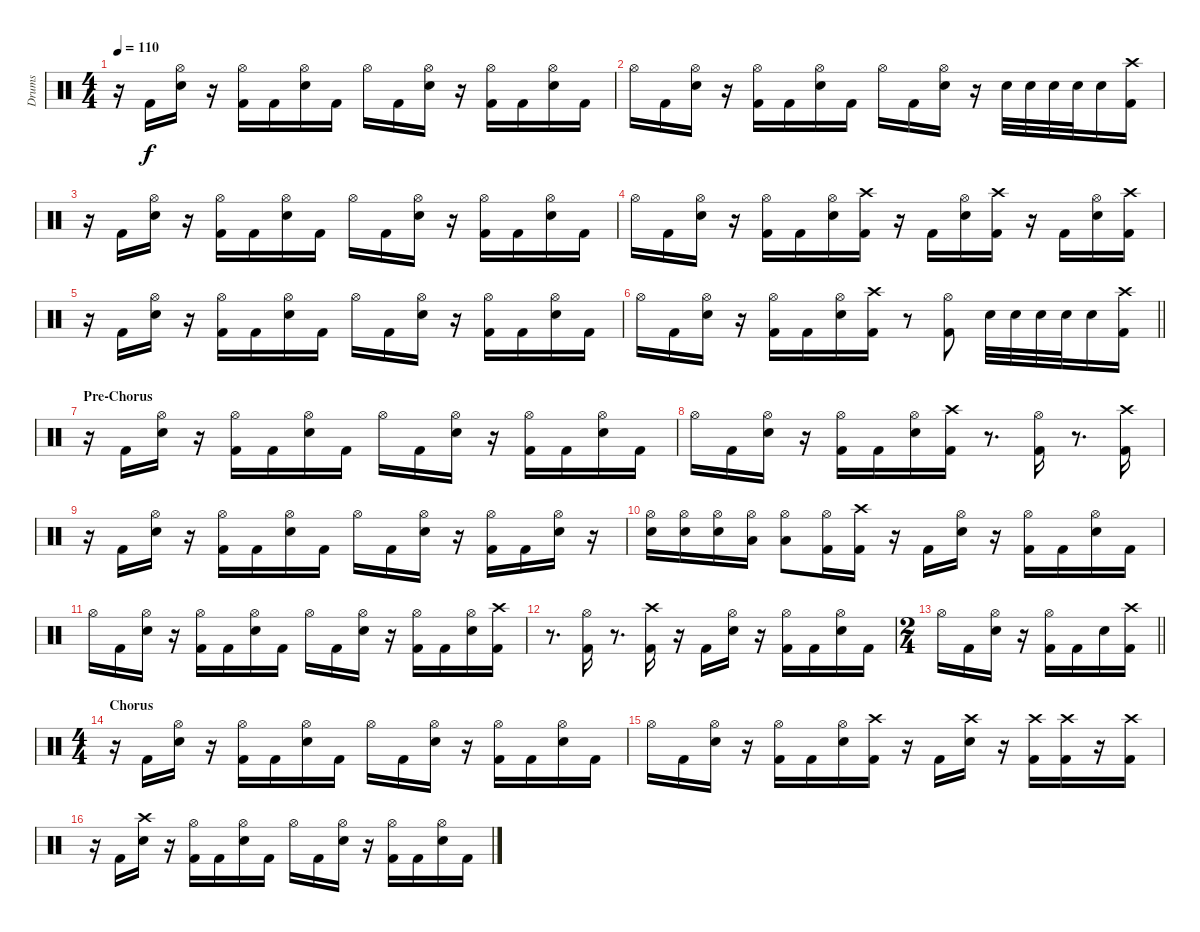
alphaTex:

\track ("Drums" "Drums") {instrument percussion}
\staff {score}
\articulation defaults
\ts (4 4)
\tempo 110
\clef neutral
\ks c
r.16{dy f} "Kick (hit) 2".16 ("Hi-Hat (open)" "Snare (hit) 2").16 r.16 ("Hi-Hat (open)" "Kick (hit) 2").16 "Kick (hit) 2".16 ("Hi-Hat (open)" "Snare (hit) 2").16 "Kick (hit) 2".16 "Hi-Hat (open)".16 "Kick (hit) 2".16 ("Hi-Hat (open)" "Snare (hit) 2").16 r.16 ("Hi-Hat (open)" "Kick (hit) 2").16 "Kick (hit) 2".16 ("Hi-Hat (open)" "Snare (hit) 2").16 "Kick (hit) 2".16 |
"Hi-Hat (open)".16 "Kick (hit) 2".16 ("Hi-Hat (open)" "Snare (hit) 2").16 r.16 ("Hi-Hat (open)" "Kick (hit) 2").16 "Kick (hit) 2".16 ("Hi-Hat (open)" "Snare (hit) 2").16 "Kick (hit) 2".16 "Hi-Hat (open)".16 "Kick (hit) 2".16 ("Hi-Hat (open)" "Snare (hit) 2").16 r.16 "Snare (hit) 2".32 "Snare (hit) 2".32 "Snare (hit) 2".32 "Snare (hit) 2".32 "Snare (hit) 2".16 ("Crash high (hit)" "Kick (hit) 2").16 |
r.16 "Kick (hit) 2".16 ("Hi-Hat (open)" "Snare (hit) 2").16 r.16 ("Hi-Hat (open)" "Kick (hit) 2").16 "Kick (hit) 2".16 ("Hi-Hat (open)" "Snare (hit) 2").16 "Kick (hit) 2".16 "Hi-Hat (open)".16 "Kick (hit) 2".16 ("Hi-Hat (open)" "Snare (hit) 2").16 r.16 ("Hi-Hat (open)" "Kick (hit) 2").16 "Kick (hit) 2".16 ("Hi-Hat (open)" "Snare (hit) 2").16 "Kick (hit) 2".16 |
"Hi-Hat (open)".16 "Kick (hit) 2".16 ("Hi-Hat (open)" "Snare (hit) 2").16 r.16 ("Hi-Hat (open)" "Kick (hit) 2").16 "Kick (hit) 2".16 ("Hi-Hat (open)" "Snare (hit) 2").16 ("Crash high (hit)" "Kick (hit) 2").16 r.16 "Kick (hit) 2".16 ("Hi-Hat (open)" "Snare (hit) 2").16 ("Crash high (hit)" "Kick (hit) 2").16 r.16 "Kick (hit) 2".16 ("Hi-Hat (open)" "Snare (hit) 2").16 ("Crash high (hit)" "Kick (hit) 2").16 |
r.16 "Kick (hit) 2".16 ("Hi-Hat (open)" "Snare (hit) 2").16 r.16 ("Hi-Hat (open)" "Kick (hit) 2").16 "Kick (hit) 2".16 ("Hi-Hat (open)" "Snare (hit) 2").16 "Kick (hit) 2".16 "Hi-Hat (open)".16 "Kick (hit) 2".16 ("Hi-Hat (open)" "Snare (hit) 2").16 r.16 ("Hi-Hat (open)" "Kick (hit) 2").16 "Kick (hit) 2".16 ("Hi-Hat (open)" "Snare (hit) 2").16 "Kick (hit) 2".16 |
\barLineRight lightlight "Hi-Hat (open)".16 "Kick (hit) 2".16
("Hi-Hat (open)" "Snare (hit) 2").16 r.16 ("Hi-Hat (open)" "Kick (hit) 2").16 "Kick (hit) 2".16 ("Hi-Hat (open)" "Snare (hit) 2").16 ("Crash high (hit)" "Kick (hit) 2").16 r.8 ("Hi-Hat (open)" "Kick (hit) 2").8 "Snare (hit) 2".32 "Snare (hit) 2".32 "Snare (hit) 2".32 "Snare (hit) 2".32 "Snare (hit) 2".16 ("Crash high (hit)" "Kick (hit) 2").16 |
\section ("" "Pre-Chorus")
r.16 "Kick (hit) 2".16 ("Hi-Hat (open)" "Snare (hit) 2").16 r.16 ("Hi-Hat (open)" "Kick (hit) 2").16 "Kick (hit) 2".16 ("Hi-Hat (open)" "Snare (hit) 2").16 "Kick (hit) 2".16 "Hi-Hat (open)".16 "Kick (hit) 2".16 ("Hi-Hat (open)" "Snare (hit) 2").16 r.16 ("Hi-Hat (open)" "Kick (hit) 2").16 "Kick (hit) 2".16 ("Hi-Hat (open)" "Snare (hit) 2").16 "Kick (hit) 2".16 |
"Hi-Hat (open)".16 "Kick (hit) 2".16 ("Hi-Hat (open)" "Snare (hit) 2").16 r.16 ("Hi-Hat (open)" "Kick (hit) 2").16 "Kick (hit) 2".16 ("Hi-Hat (open)" "Snare (hit) 2").16 ("Crash high (hit)" "Kick (hit) 2").16 r.8{d} ("Hi-Hat (open)" "Kick (hit) 2").16 r.8{d} ("Crash high (hit)" "Kick (hit) 2").16 |
r.16 "Kick (hit) 2".16 ("Hi-Hat (open)" "Snare (hit) 2").16 r.16 ("Hi-Hat (open)" "Kick (hit) 2").16 "Kick (hit) 2".16 ("Hi-Hat (open)" "Snare (hit) 2").16 "Kick (hit) 2".16 "Hi-Hat (open)".16 "Kick (hit) 2".16 ("Hi-Hat (open)" "Snare (hit) 2").16 r.16 ("Hi-Hat (open)" "Kick (hit) 2").16 "Kick (hit) 2".16 ("Hi-Hat (open)" "Snare (hit) 2").16 r.16 |
("Hi-Hat (open)" "Snare (hit) 2").16 ("Hi-Hat (open)" "Snare (hit) 2").16 ("Hi-Hat (open)" "Snare (hit) 2").16 ("Hi-Hat (open)" "Low Tom (hit)").16 ("Hi-Hat (open)" "Low Tom (hit)").8 ("Hi-Hat (open)" "Kick (hit) 2").16 ("Crash high (hit)" "Kick (hit) 2").16 r.16 "Kick (hit) 2".16 ("Hi-Hat (open)" "Snare (hit) 2").16 r.16 ("Hi-Hat (open)" "Kick (hit) 2").16 "Kick (hit) 2".16 ("Hi-Hat (open)" "Snare (hit) 2").16 "Kick (hit) 2".16 |
"Hi-Hat (open)".16 "Kick (hit) 2".16 ("Hi-Hat (open)" "Snare (hit) 2").16 r.16 ("Hi-Hat (open)" "Kick (hit) 2").16 "Kick (hit) 2".16 ("Hi-Hat (open)" "Snare (hit) 2").16 "Kick (hit) 2".16 "Hi-Hat (open)".16 "Kick (hit) 2".16 ("Hi-Hat (open)" "Snare (hit) 2").16 r.16 ("Hi-Hat (open)" "Kick (hit) 2").16 "Kick (hit) 2".16 ("Hi-Hat (open)" "Snare (hit) 2").16 ("Crash high (hit)" "Kick (hit) 2").16 |
r.8{d} ("Hi-Hat (open)" "Kick (hit) 2").16 r.8{d} ("Crash high (hit)" "Kick (hit) 2").16 r.16 "Kick (hit) 2".16 ("Hi-Hat (open)" "Snare (hit) 2").16 r.16 ("Hi-Hat (open)" "Kick (hit) 2").16 "Kick (hit) 2".16 ("Hi-Hat (open)" "Snare (hit) 2").16 "Kick (hit) 2".16 |
\ts (2 4)
\barLineRight lightlight "Hi-Hat (open)".16 "Kick (hit) 2".16
("Hi-Hat (open)" "Snare (hit) 2").16 r.16 ("Hi-Hat (open)" "Kick (hit) 2").16 "Kick (hit) 2".16 "Snare (hit) 2".16 ("Crash high (hit)" "Kick (hit) 2").16 |
\ts (4 4)
\section ("" "Chorus")
r.16 "Kick (hit) 2".16 ("Hi-Hat (open)" "Snare (hit) 2").16 r.16 ("Hi-Hat (open)" "Kick (hit) 2").16 "Kick (hit) 2".16 ("Hi-Hat (open)" "Snare (hit) 2").16 "Kick (hit) 2".16 "Hi-Hat (open)".16 "Kick (hit) 2".16 ("Hi-Hat (open)" "Snare (hit) 2").16 r.16 ("Hi-Hat (open)" "Kick (hit) 2").16 "Kick (hit) 2".16 ("Hi-Hat (open)" "Snare (hit) 2").16 "Kick (hit) 2".16 |
"Hi-Hat (open)".16 "Kick (hit) 2".16 ("Hi-Hat (open)" "Snare (hit) 2").16 r.16 ("Hi-Hat (open)" "Kick (hit) 2").16 "Kick (hit) 2".16 ("Hi-Hat (open)" "Snare (hit) 2").16 ("Crash high (hit)" "Kick (hit) 2").16 r.16 "Kick (hit) 2".16 ("Crash high (hit)" "Snare (hit) 2").16 r.16 ("Crash high (hit)" "Kick (hit) 2").16 ("Crash high (hit)" "Kick (hit) 2").16 r.16 ("Crash high (hit)" "Kick (hit) 2").16 |
r.16 "Kick (hit) 2".16 ("Crash high (hit)" "Snare (hit) 2").16 r.16 ("Hi-Hat (open)" "Kick (hit) 2").16 "Kick (hit) 2".16 ("Hi-Hat (open)" "Snare (hit) 2").16 "Kick (hit) 2".16 "Hi-Hat (open)".16 "Kick (hit) 2".16 ("Hi-Hat (open)" "Snare (hit) 2").16 r.16 ("Hi-Hat (open)" "Kick (hit) 2").16 "Kick (hit) 2".16 ("Hi-Hat (open)" "Snare (hit) 2").16 "Kick (hit) 2".16
